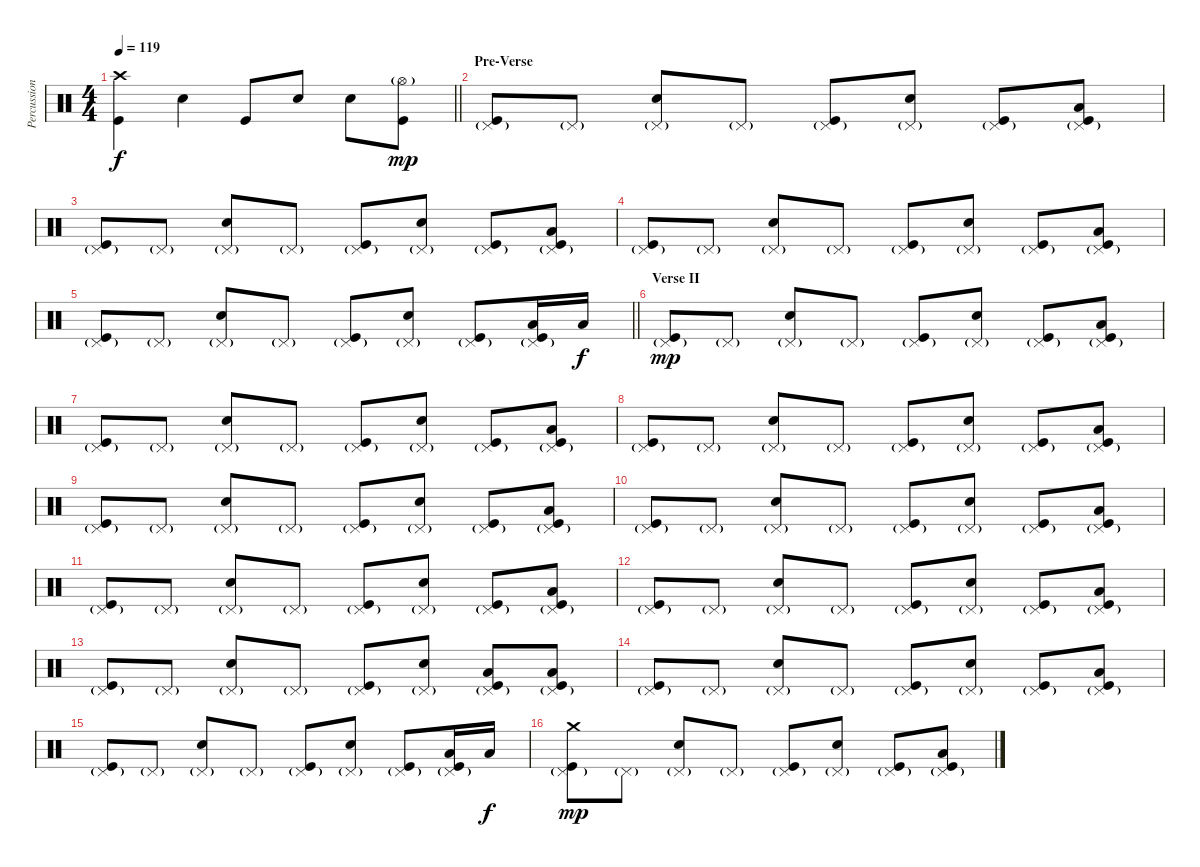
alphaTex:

\track ("Percussion" "Percussion") {instrument percussion}
\staff {score}
\articulation defaults
\ts (4 4)
\tempo 119
\clef neutral
\barLineRight lightlight
\ks c
("Crash high (hit)" "Kick (hit)").4{dy f} "Snare (hit) 2".4 "Kick (hit)".8 "Snare (hit) 2".8 "Snare (hit) 2".8 ("Hi-Hat (open)"{g} "Kick (hit)").8{dy mp} |
\section ("" "Pre-Verse")
("Pedal Hi-Hat (hit)"{g} "Kick (hit)").8 "Pedal Hi-Hat (hit)"{g}.8 ("Pedal Hi-Hat (hit)"{g} "Snare (hit) 2").8 "Pedal Hi-Hat (hit)"{g}.8 ("Pedal Hi-Hat (hit)"{g} "Kick (hit)").8 ("Pedal Hi-Hat (hit)"{g} "Snare (hit) 2").8 ("Pedal Hi-Hat (hit)"{g} "Kick (hit)").8 ("Pedal Hi-Hat (hit)"{g} "Low Tom (hit)" "Kick (hit)").8 |
("Pedal Hi-Hat (hit)"{g} "Kick (hit)").8 "Pedal Hi-Hat (hit)"{g}.8 ("Pedal Hi-Hat (hit)"{g} "Snare (hit) 2").8 "Pedal Hi-Hat (hit)"{g}.8 ("Pedal Hi-Hat (hit)"{g} "Kick (hit)").8 ("Pedal Hi-Hat (hit)"{g} "Snare (hit) 2").8 ("Pedal Hi-Hat (hit)"{g} "Kick (hit)").8 ("Pedal Hi-Hat (hit)"{g} "Low Tom (hit)" "Kick (hit)").8 |
("Pedal Hi-Hat (hit)"{g} "Kick (hit)").8 "Pedal Hi-Hat (hit)"{g}.8 ("Pedal Hi-Hat (hit)"{g} "Snare (hit) 2").8 "Pedal Hi-Hat (hit)"{g}.8 ("Pedal Hi-Hat (hit)"{g} "Kick (hit)").8 ("Pedal Hi-Hat (hit)"{g} "Snare (hit) 2").8 ("Pedal Hi-Hat (hit)"{g} "Kick (hit)").8 ("Pedal Hi-Hat (hit)"{g} "Low Tom (hit)" "Kick (hit)").8 |
\barLineRight lightlight
("Pedal Hi-Hat (hit)"{g} "Kick (hit)").8 "Pedal Hi-Hat (hit)"{g}.8 ("Pedal Hi-Hat (hit)"{g} "Snare (hit) 2").8 "Pedal Hi-Hat (hit)"{g}.8 ("Pedal Hi-Hat (hit)"{g} "Kick (hit)").8 ("Pedal Hi-Hat (hit)"{g} "Snare (hit) 2").8 ("Pedal Hi-Hat (hit)"{g} "Kick (hit)").8 ("Pedal Hi-Hat (hit)"{g} "Low Floor Tom (hit)" "Kick (hit)").16 "Low Floor Tom (hit)".16{dy f} |
\section ("" "Verse II")
("Pedal Hi-Hat (hit)"{g} "Kick (hit)").8{dy mp} "Pedal Hi-Hat (hit)"{g}.8 ("Pedal Hi-Hat (hit)"{g} "Snare (hit) 2").8 "Pedal Hi-Hat (hit)"{g}.8 ("Pedal Hi-Hat (hit)"{g} "Kick (hit)").8 ("Pedal Hi-Hat (hit)"{g} "Snare (hit) 2").8 ("Pedal Hi-Hat (hit)"{g} "Kick (hit)").8 ("Pedal Hi-Hat (hit)"{g} "Low Tom (hit)" "Kick (hit)").8 |
("Pedal Hi-Hat (hit)"{g} "Kick (hit)").8 "Pedal Hi-Hat (hit)"{g}.8 ("Pedal Hi-Hat (hit)"{g} "Snare (hit) 2").8 "Pedal Hi-Hat (hit)"{g}.8 ("Pedal Hi-Hat (hit)"{g} "Kick (hit)").8 ("Pedal Hi-Hat (hit)"{g} "Snare (hit) 2").8 ("Pedal Hi-Hat (hit)"{g} "Kick (hit)").8 ("Pedal Hi-Hat (hit)"{g} "Low Tom (hit)" "Kick (hit)").8 |
("Pedal Hi-Hat (hit)"{g} "Kick (hit)").8 "Pedal Hi-Hat (hit)"{g}.8 ("Pedal Hi-Hat (hit)"{g} "Snare (hit) 2").8 "Pedal Hi-Hat (hit)"{g}.8 ("Pedal Hi-Hat (hit)"{g} "Kick (hit)").8 ("Pedal Hi-Hat (hit)"{g} "Snare (hit) 2").8 ("Pedal Hi-Hat (hit)"{g} "Kick (hit)").8 ("Pedal Hi-Hat (hit)"{g} "Low Tom (hit)" "Kick (hit)").8 |
("Pedal Hi-Hat (hit)"{g} "Kick (hit)").8 "Pedal Hi-Hat (hit)"{g}.8 ("Pedal Hi-Hat (hit)"{g} "Snare (hit) 2").8 "Pedal Hi-Hat (hit)"{g}.8 ("Pedal Hi-Hat (hit)"{g} "Kick (hit)").8 ("Pedal Hi-Hat (hit)"{g} "Snare (hit) 2").8 ("Pedal Hi-Hat (hit)"{g} "Kick (hit)").8 ("Pedal Hi-Hat (hit)"{g} "Low Tom (hit)" "Kick (hit)").8 |
("Pedal Hi-Hat (hit)"{g} "Kick (hit)").8 "Pedal Hi-Hat (hit)"{g}.8 ("Pedal Hi-Hat (hit)"{g} "Snare (hit) 2").8 "Pedal Hi-Hat (hit)"{g}.8 ("Pedal Hi-Hat (hit)"{g} "Kick (hit)").8 ("Pedal Hi-Hat (hit)"{g} "Snare (hit) 2").8 ("Pedal Hi-Hat (hit)"{g} "Kick (hit)").8 ("Pedal Hi-Hat (hit)"{g} "Low Tom (hit)" "Kick (hit)").8 |
("Pedal Hi-Hat (hit)"{g} "Kick (hit)").8 "Pedal Hi-Hat (hit)"{g}.8 ("Pedal Hi-Hat (hit)"{g} "Snare (hit) 2").8 "Pedal Hi-Hat (hit)"{g}.8 ("Pedal Hi-Hat (hit)"{g} "Kick (hit)").8 ("Pedal Hi-Hat (hit)"{g} "Snare (hit) 2").8 ("Pedal Hi-Hat (hit)"{g} "Kick (hit)").8 ("Pedal Hi-Hat (hit)"{g} "Low Tom (hit)" "Kick (hit)").8 |
("Pedal Hi-Hat (hit)"{g} "Kick (hit)").8 "Pedal Hi-Hat (hit)"{g}.8 ("Pedal Hi-Hat (hit)"{g} "Snare (hit) 2").8 "Pedal Hi-Hat (hit)"{g}.8 ("Pedal Hi-Hat (hit)"{g} "Kick (hit)").8 ("Pedal Hi-Hat (hit)"{g} "Snare (hit) 2").8 ("Pedal Hi-Hat (hit)"{g} "Kick (hit)").8 ("Pedal Hi-Hat (hit)"{g} "Low Tom (hit)" "Kick (hit)").8 |
("Pedal Hi-Hat (hit)"{g} "Kick (hit)").8 "Pedal Hi-Hat (hit)"{g}.8 ("Pedal Hi-Hat (hit)"{g} "Snare (hit) 2").8 "Pedal Hi-Hat (hit)"{g}.8 ("Pedal Hi-Hat (hit)"{g} "Kick (hit)").8 ("Pedal Hi-Hat (hit)"{g} "Snare (hit) 2").8 ("Pedal Hi-Hat (hit)"{g} "Low Tom (hit)" "Kick (hit)").8 ("Pedal Hi-Hat (hit)"{g} "Low Tom (hit)" "Kick (hit)").8 |
("Pedal Hi-Hat (hit)"{g} "Kick (hit)").8 "Pedal Hi-Hat (hit)"{g}.8 ("Pedal Hi-Hat (hit)"{g} "Snare (hit) 2").8 "Pedal Hi-Hat (hit)"{g}.8 ("Pedal Hi-Hat (hit)"{g} "Kick (hit)").8 ("Pedal Hi-Hat (hit)"{g} "Snare (hit) 2").8 ("Pedal Hi-Hat (hit)"{g} "Kick (hit)").8 ("Pedal Hi-Hat (hit)"{g} "Low Tom (hit)" "Kick (hit)").8 |
("Pedal Hi-Hat (hit)"{g} "Kick (hit)").8 "Pedal Hi-Hat (hit)"{g}.8 ("Pedal Hi-Hat (hit)"{g} "Snare (hit) 2").8 "Pedal Hi-Hat (hit)"{g}.8 ("Pedal Hi-Hat (hit)"{g} "Kick (hit)").8 ("Pedal Hi-Hat (hit)"{g} "Snare (hit) 2").8 ("Pedal Hi-Hat (hit)"{g} "Kick (hit)").8 ("Pedal Hi-Hat (hit)"{g} "Low Tom (hit)" "Kick (hit)").16 "Low Tom (hit)".16{dy f} |
("Crash medium (hit)" "Pedal Hi-Hat (hit)"{g} "Kick (hit)").8{dy mp} "Pedal Hi-Hat (hit)"{g}.8 ("Pedal Hi-Hat (hit)"{g} "Snare (hit) 2").8 "Pedal Hi-Hat (hit)"{g}.8 ("Pedal Hi-Hat (hit)"{g} "Kick (hit)").8 ("Pedal Hi-Hat (hit)"{g} "Snare (hit) 2").8 ("Pedal Hi-Hat (hit)"{g} "Kick (hit)").8 ("Pedal Hi-Hat (hit)"{g} "Low Tom (hit)" "Kick (hit)").8
